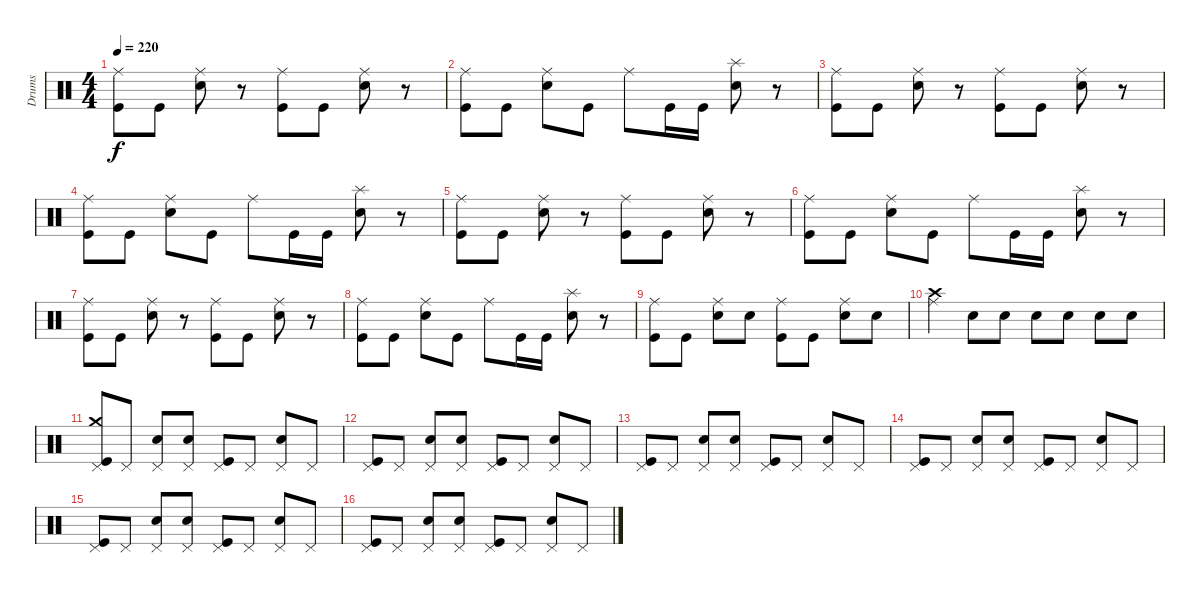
\track ("Drums" "Drums") {instrument percussion}
\staff {score}
\articulation defaults
\ts (4 4)
\tempo 220
\clef neutral
\ks c
("Ride (middle)" "Kick (hit)").8{dy f} "Kick (hit)".8 ("Ride (middle)" "Electric Snare (hit)").8 r.8 ("Ride (middle)" "Kick (hit)").8 "Kick (hit)".8 ("Ride (middle)" "Electric Snare (hit)").8 r.8 |
("Ride (middle)" "Kick (hit)").8 "Kick (hit)".8 ("Ride (middle)" "Electric Snare (hit)").8 "Kick (hit)".8 "Ride (middle)".8 "Kick (hit)".16 "Kick (hit)".16 ("Splash (hit)" "Electric Snare (hit)").8 r.8 |
("Ride (middle)" "Kick (hit)").8 "Kick (hit)".8 ("Ride (middle)" "Electric Snare (hit)").8 r.8 ("Ride (middle)" "Kick (hit)").8 "Kick (hit)".8 ("Ride (middle)" "Electric Snare (hit)").8 r.8 |
("Ride (middle)" "Kick (hit)").8 "Kick (hit)".8 ("Ride (middle)" "Electric Snare (hit)").8 "Kick (hit)".8 "Ride (middle)".8 "Kick (hit)".16 "Kick (hit)".16 ("Splash (hit)" "Electric Snare (hit)").8 r.8 |
("Ride (middle)" "Kick (hit)").8 "Kick (hit)".8 ("Ride (middle)" "Electric Snare (hit)").8 r.8 ("Ride (middle)" "Kick (hit)").8 "Kick (hit)".8 ("Ride (middle)" "Electric Snare (hit)").8 r.8 |
("Kick (hit)" "Ride (middle)").8 "Kick (hit)".8 ("Electric Snare (hit)" "Ride (middle)").8 "Kick (hit)".8 "Ride (middle)".8 "Kick (hit)".16 "Kick (hit)".16 ("Splash (hit)" "Electric Snare (hit)").8 r.8 |
("Ride (middle)" "Kick (hit)").8 "Kick (hit)".8 ("Electric Snare (hit)" "Ride (middle)").8 r.8 ("Kick (hit)" "Ride (middle)").8 "Kick (hit)".8 ("Ride (middle)" "Electric Snare (hit)").8 r.8 |
("Ride (middle)" "Kick (hit)").8 "Kick (hit)".8 ("Electric Snare (hit)" "Ride (middle)").8 "Kick (hit)".8 "Ride (middle)".8 "Kick (hit)".16 "Kick (hit)".16 ("Electric Snare (hit)" "Splash (hit)").8 r.8 |
("Kick (hit)" "Ride (middle)").8 "Kick (hit)".8 ("Ride (middle)" "Electric Snare (hit)").8 "Electric Snare (hit)".8 ("Ride (middle)" "Kick (hit)").8 "Kick (hit)".8 ("Ride (middle)" "Electric Snare (hit)").8 "Electric Snare (hit)".8 |
("Crash high (hit)" "Ride (middle)").4 "Electric Snare (hit)".8 "Electric Snare (hit)".8 "Electric Snare (hit)".8 "Electric Snare (hit)".8 "Electric Snare (hit)".8 "Electric Snare (hit)".8 |
("Crash medium (hit)" "Kick (hit)" "Pedal Hi-Hat (hit)").8 "Pedal Hi-Hat (hit)".8 ("Electric Snare (hit)" "Pedal Hi-Hat (hit)").8 ("Electric Snare (hit)" "Pedal Hi-Hat (hit)").8 ("Pedal Hi-Hat (hit)" "Kick (hit)").8 "Pedal Hi-Hat (hit)".8 ("Pedal Hi-Hat (hit)" "Electric Snare (hit)").8 "Pedal Hi-Hat (hit)".8 |
("Kick (hit)" "Pedal Hi-Hat (hit)").8 "Pedal Hi-Hat (hit)".8 ("Electric Snare (hit)" "Pedal Hi-Hat (hit)").8 ("Electric Snare (hit)" "Pedal Hi-Hat (hit)").8 ("Pedal Hi-Hat (hit)" "Kick (hit)").8 "Pedal Hi-Hat (hit)".8 ("Electric Snare (hit)" "Pedal Hi-Hat (hit)").8 "Pedal Hi-Hat (hit)".8 |
("Kick (hit)" "Pedal Hi-Hat (hit)").8 "Pedal Hi-Hat (hit)".8 ("Electric Snare (hit)" "Pedal Hi-Hat (hit)").8 ("Electric Snare (hit)" "Pedal Hi-Hat (hit)").8 ("Pedal Hi-Hat (hit)" "Kick (hit)").8 "Pedal Hi-Hat (hit)".8 ("Electric Snare (hit)" "Pedal Hi-Hat (hit)").8 "Pedal Hi-Hat (hit)".8 |
("Pedal Hi-Hat (hit)" "Kick (hit)").8 "Pedal Hi-Hat (hit)".8 ("Electric Snare (hit)" "Pedal Hi-Hat (hit)").8 ("Electric Snare (hit)" "Pedal Hi-Hat (hit)").8 ("Pedal Hi-Hat (hit)" "Kick (hit)").8 "Pedal Hi-Hat (hit)".8 ("Electric Snare (hit)" "Pedal Hi-Hat (hit)").8 "Pedal Hi-Hat (hit)".8 |
("Kick (hit)" "Pedal Hi-Hat (hit)").8 "Pedal Hi-Hat (hit)".8 ("Electric Snare (hit)" "Pedal Hi-Hat (hit)").8 ("Electric Snare (hit)" "Pedal Hi-Hat (hit)").8 ("Pedal Hi-Hat (hit)" "Kick (hit)").8 "Pedal Hi-Hat (hit)".8 ("Pedal Hi-Hat (hit)" "Electric Snare (hit)").8 "Pedal Hi-Hat (hit)".8 |
("Kick (hit)" "Pedal Hi-Hat (hit)").8 "Pedal Hi-Hat (hit)".8 ("Electric Snare (hit)" "Pedal Hi-Hat (hit)").8 ("Electric Snare (hit)" "Pedal Hi-Hat (hit)").8 ("Pedal Hi-Hat (hit)" "Kick (hit)").8 "Pedal Hi-Hat (hit)".8 ("Electric Snare (hit)" "Pedal Hi-Hat (hit)").8 "Pedal Hi-Hat (hit)".8
